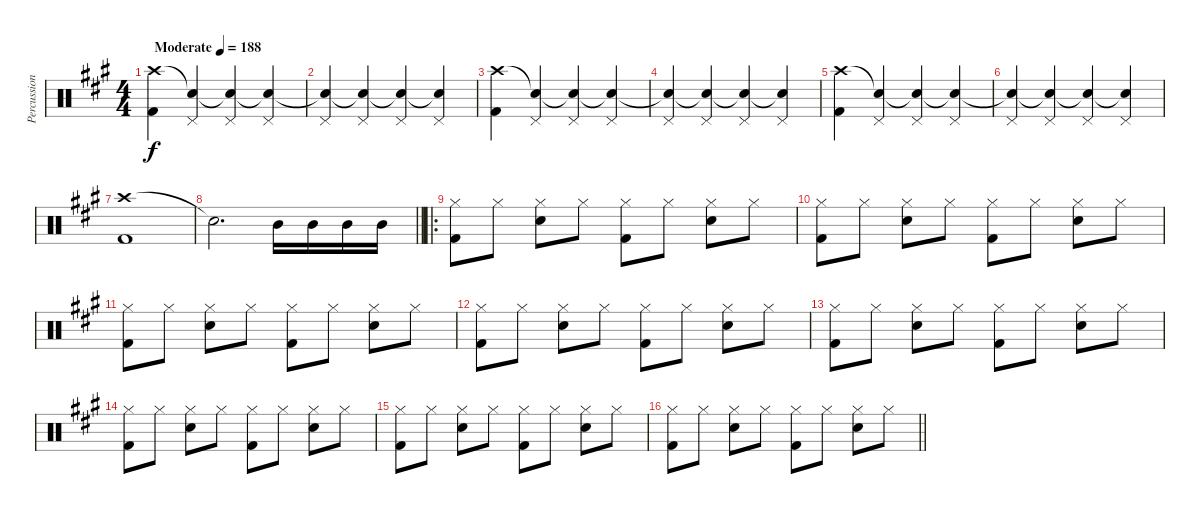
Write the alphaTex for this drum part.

\track ("Percussion" "Percussion") {instrument percussion}
\staff {score}
\articulation defaults
\ts (4 4)
\tempo (188 "Moderate")
\clef neutral
\ks a
("Crash high (hit)" "Kick (hit) 2").4{dy f} ("Snare (hit)"{t} "Pedal Hi-Hat (hit)").4 ("Snare (hit)"{t} "Pedal Hi-Hat (hit)").4 ("Snare (hit)"{t} "Pedal Hi-Hat (hit)").4 |
("Snare (hit)"{t} "Pedal Hi-Hat (hit)").4 ("Snare (hit)"{t} "Pedal Hi-Hat (hit)").4 ("Snare (hit)"{t} "Pedal Hi-Hat (hit)").4 ("Snare (hit)"{t} "Pedal Hi-Hat (hit)").4 |
("Crash high (hit)" "Kick (hit) 2").4 ("Snare (hit)"{t} "Pedal Hi-Hat (hit)").4 ("Snare (hit)"{t} "Pedal Hi-Hat (hit)").4 ("Snare (hit)"{t} "Pedal Hi-Hat (hit)").4 |
("Snare (hit)"{t} "Pedal Hi-Hat (hit)").4 ("Snare (hit)"{t} "Pedal Hi-Hat (hit)").4 ("Snare (hit)"{t} "Pedal Hi-Hat (hit)").4 ("Snare (hit)"{t} "Pedal Hi-Hat (hit)").4 |
("Crash high (hit)" "Kick (hit) 2").4 ("Snare (hit)"{t} "Pedal Hi-Hat (hit)").4 ("Snare (hit)"{t} "Pedal Hi-Hat (hit)").4 ("Snare (hit)"{t} "Pedal Hi-Hat (hit)").4 |
("Snare (hit)"{t} "Pedal Hi-Hat (hit)").4 ("Snare (hit)"{t} "Pedal Hi-Hat (hit)").4 ("Snare (hit)"{t} "Pedal Hi-Hat (hit)").4 ("Snare (hit)"{t} "Pedal Hi-Hat (hit)").4 |
("Crash high (hit)" "Kick (hit) 2").1 |
\barLineRight lightlight "Snare (hit)"{t}.2{d} "Mid Tom (hit)".16 "Mid Tom (hit)".16 "Mid Tom (hit)".16 "Mid Tom (hit)".16
|
\ro
("Hi-Hat (closed)" "Kick (hit) 2").8 "Hi-Hat (closed)".8 ("Hi-Hat (closed)" "Snare (hit) 2").8 "Hi-Hat (closed)".8 ("Hi-Hat (closed)" "Kick (hit) 2").8 "Hi-Hat (closed)".8 ("Hi-Hat (closed)" "Snare (hit) 2").8 "Hi-Hat (closed)".8 |
("Hi-Hat (closed)" "Kick (hit) 2").8 "Hi-Hat (closed)".8 ("Hi-Hat (closed)" "Snare (hit) 2").8 "Hi-Hat (closed)".8 ("Hi-Hat (closed)" "Kick (hit) 2").8 "Hi-Hat (closed)".8 ("Hi-Hat (closed)" "Snare (hit) 2").8 "Hi-Hat (closed)".8 |
("Hi-Hat (closed)" "Kick (hit) 2").8 "Hi-Hat (closed)".8 ("Hi-Hat (closed)" "Snare (hit) 2").8 "Hi-Hat (closed)".8 ("Hi-Hat (closed)" "Kick (hit) 2").8 "Hi-Hat (closed)".8 ("Hi-Hat (closed)" "Snare (hit) 2").8 "Hi-Hat (closed)".8 |
("Hi-Hat (closed)" "Kick (hit) 2").8 "Hi-Hat (closed)".8 ("Hi-Hat (closed)" "Snare (hit) 2").8 "Hi-Hat (closed)".8 ("Hi-Hat (closed)" "Kick (hit) 2").8 "Hi-Hat (closed)".8 ("Hi-Hat (closed)" "Snare (hit) 2").8 "Hi-Hat (closed)".8 |
("Hi-Hat (closed)" "Kick (hit) 2").8 "Hi-Hat (closed)".8 ("Hi-Hat (closed)" "Snare (hit) 2").8 "Hi-Hat (closed)".8 ("Hi-Hat (closed)" "Kick (hit) 2").8 "Hi-Hat (closed)".8 ("Hi-Hat (closed)" "Snare (hit) 2").8 "Hi-Hat (closed)".8 |
("Hi-Hat (closed)" "Kick (hit) 2").8 "Hi-Hat (closed)".8 ("Hi-Hat (closed)" "Snare (hit) 2").8 "Hi-Hat (closed)".8 ("Hi-Hat (closed)" "Kick (hit) 2").8 "Hi-Hat (closed)".8 ("Hi-Hat (closed)" "Snare (hit) 2").8 "Hi-Hat (closed)".8 |
("Hi-Hat (closed)" "Kick (hit) 2").8 "Hi-Hat (closed)".8 ("Hi-Hat (closed)" "Snare (hit) 2").8 "Hi-Hat (closed)".8 ("Hi-Hat (closed)" "Kick (hit) 2").8 "Hi-Hat (closed)".8 ("Hi-Hat (closed)" "Snare (hit) 2").8 "Hi-Hat (closed)".8 |
\barLineRight lightlight
("Hi-Hat (closed)" "Kick (hit) 2").8 "Hi-Hat (closed)".8 ("Hi-Hat (closed)" "Snare (hit) 2").8 "Hi-Hat (closed)".8 ("Hi-Hat (closed)" "Kick (hit) 2").8 "Hi-Hat (closed)".8 ("Hi-Hat (closed)" "Snare (hit) 2").8 "Hi-Hat (closed)".8
